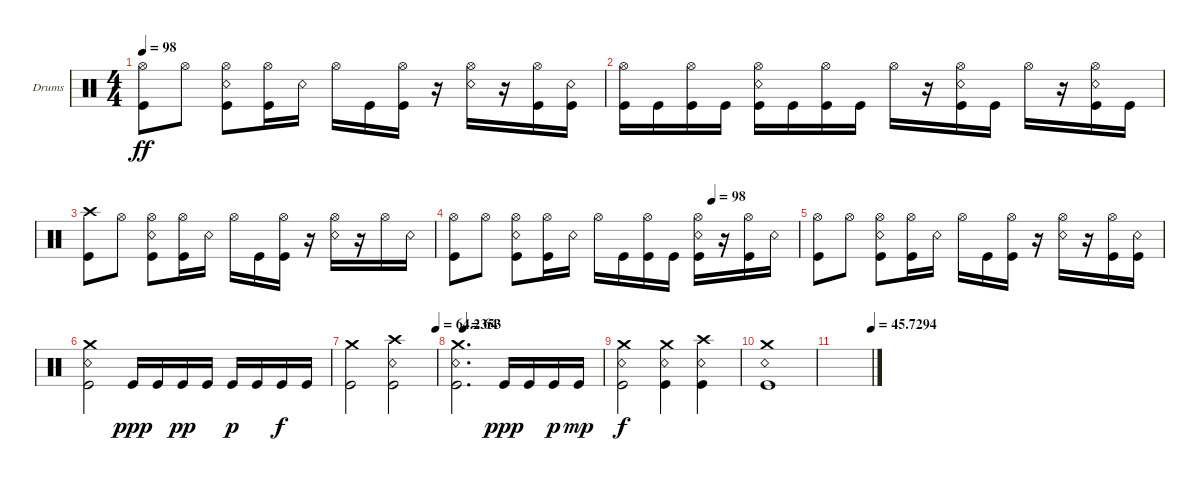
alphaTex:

\bracketExtendMode groupsimilarinstruments
\firstSystemTrackNameOrientation horizontal
\otherSystemsTrackNameOrientation horizontal
\track ("Drumkit" "Drums") {instrument percussion}
\staff {score}
\articulation defaults
\ts (4 4)
\tempo 98
\clef neutral
\ks c
("Kick (hit)" "Hi-Hat (open)").8{dy ff} "Hi-Hat (open)".8 ("Kick (hit)" "Hi-Hat (open)" "Snare (rim shot)").8 ("Kick (hit)" "Hi-Hat (open)").16 "Snare (rim shot)".16 "Hi-Hat (open)".16 "Kick (hit)".16 ("Kick (hit)" "Hi-Hat (open)").16 r.16 ("Snare (rim shot)" "Hi-Hat (open)").16 r.16 ("Hi-Hat (open)" "Kick (hit)").16 ("Snare (rim shot)" "Kick (hit)").16 |
("Kick (hit)" "Hi-Hat (open)").16 "Kick (hit)".16 ("Kick (hit)" "Hi-Hat (open)").16 "Kick (hit)".16 ("Kick (hit)" "Hi-Hat (open)" "Snare (rim shot)").16 "Kick (hit)".16 ("Kick (hit)" "Hi-Hat (open)").16 "Kick (hit)".16 "Hi-Hat (open)".16 r.16 ("Kick (hit)" "Hi-Hat (open)" "Snare (rim shot)").16 "Kick (hit)".16 "Hi-Hat (open)".16 r.16 ("Kick (hit)" "Hi-Hat (open)" "Snare (rim shot)").16 "Kick (hit)".16 |
("Kick (hit)" "Crash high (hit)").8 "Hi-Hat (open)".8 ("Kick (hit)" "Hi-Hat (open)" "Snare (rim shot)").8 ("Kick (hit)" "Hi-Hat (open)").16 "Snare (rim shot)".16 "Hi-Hat (open)".16 "Kick (hit)".16 ("Kick (hit)" "Hi-Hat (open)").16 r.16 ("Snare (rim shot)" "Hi-Hat (open)").16 r.16 "Hi-Hat (open)".16 "Snare (rim shot)".16 |
\tempo (98 0.75)
("Kick (hit)" "Hi-Hat (open)").8 "Hi-Hat (open)".8 ("Kick (hit)" "Hi-Hat (open)" "Snare (rim shot)").8 ("Kick (hit)" "Hi-Hat (open)").16 "Snare (rim shot)".16 "Hi-Hat (open)".16 "Kick (hit)".16 ("Kick (hit)" "Hi-Hat (open)").16 "Kick (hit)".16 ("Snare (rim shot)" "Hi-Hat (open)" "Kick (hit)").16 r.16 ("Hi-Hat (open)" "Kick (hit)").16 "Snare (rim shot)".16 |
("Kick (hit)" "Hi-Hat (open)").8 "Hi-Hat (open)".8 ("Kick (hit)" "Hi-Hat (open)" "Snare (rim shot)").8 ("Kick (hit)" "Hi-Hat (open)").16 "Snare (rim shot)".16 "Hi-Hat (open)".16 "Kick (hit)".16 ("Kick (hit)" "Hi-Hat (open)").16 r.16 ("Snare (rim shot)" "Hi-Hat (open)").16 r.16 ("Hi-Hat (open)" "Kick (hit)").16 ("Snare (rim shot)" "Kick (hit)").16 |
("Crash medium (hit)" "Kick (hit)" "Snare (rim shot)").2 "Kick (hit)".16{dy ppp} "Kick (hit)".16 "Kick (hit)".16{dy pp} "Kick (hit)".16 "Kick (hit)".16{dy p} "Kick (hit)".16 "Kick (hit)".16{dy f} "Kick (hit)".16 |
\tempo (64.2353 1)
("Crash medium (hit)" "Kick (hit)").2 ("Crash high (hit)" "Snare (rim shot)" "Kick (hit)").2 |
\tempo (64 0.04375)
("Kick (hit)" "Crash medium (hit)" "Snare (rim shot)").2{d} "Kick (hit)".16{dy ppp} "Kick (hit)".16 "Kick (hit)".16{dy p} "Kick (hit)".16{dy mp} |
("Kick (hit)" "Crash medium (hit)" "Snare (rim shot)").2{dy f} ("Kick (hit)" "Crash medium (hit)" "Snare (rim shot)").4 ("Kick (hit)" "Snare (rim shot)" "Crash high (hit)").4 |
("Crash medium (hit)" "Kick (hit)" "Snare (rim shot)").1 |
\tempo (45.7294 1)
